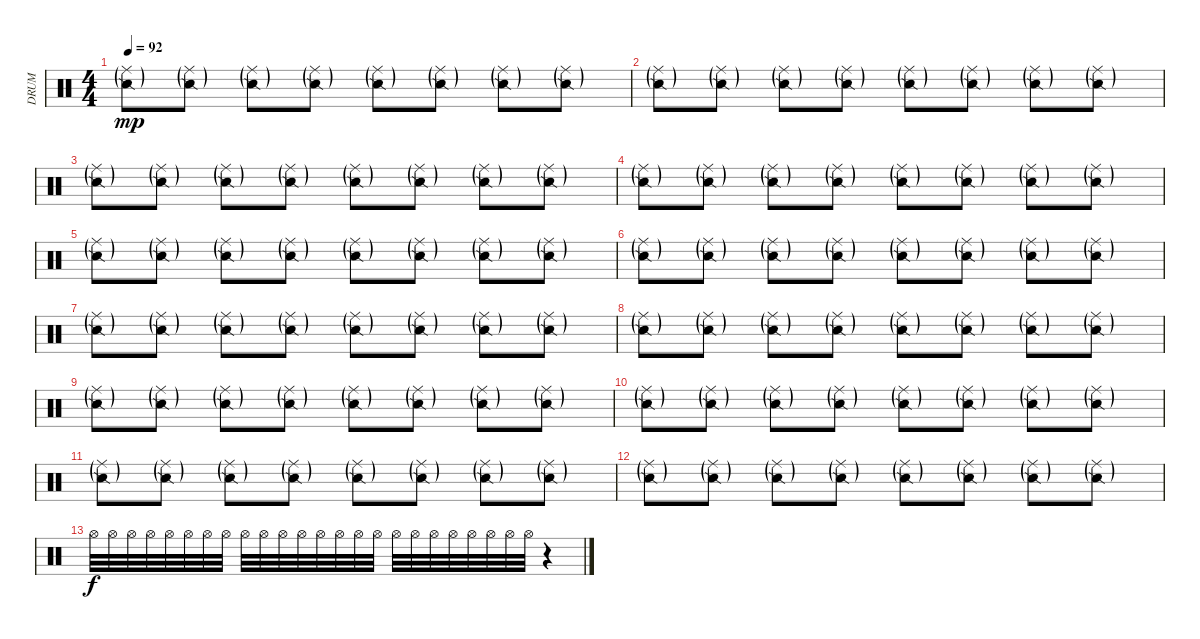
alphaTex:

\track ("DRUM" "DRUM") {instrument percussion}
\staff {score}
\articulation defaults
\ts (4 4)
\tempo 92
\clef neutral
\ks c
("Ride (middle)"{g} "Snare (side stick) 2"{g}).8{dy mp volume 10} ("Ride (middle)"{g} "Snare (side stick) 2"{g}).8 ("Ride (middle)"{g} "Snare (side stick) 2"{g}).8 ("Ride (middle)"{g} "Snare (side stick) 2"{g}).8 ("Ride (middle)"{g} "Snare (side stick) 2"{g}).8 ("Ride (middle)"{g} "Snare (side stick) 2"{g}).8 ("Ride (middle)"{g} "Snare (side stick) 2"{g}).8 ("Ride (middle)"{g} "Snare (side stick) 2"{g}).8 |
("Ride (middle)"{g} "Snare (side stick) 2"{g}).8{volume 10} ("Ride (middle)"{g} "Snare (side stick) 2"{g}).8 ("Ride (middle)"{g} "Snare (side stick) 2"{g}).8 ("Ride (middle)"{g} "Snare (side stick) 2"{g}).8 ("Ride (middle)"{g} "Snare (side stick) 2"{g}).8 ("Ride (middle)"{g} "Snare (side stick) 2"{g}).8 ("Ride (middle)"{g} "Snare (side stick) 2"{g}).8 ("Ride (middle)"{g} "Snare (side stick) 2"{g}).8 |
("Ride (middle)"{g} "Snare (side stick) 2"{g}).8{volume 10} ("Ride (middle)"{g} "Snare (side stick) 2"{g}).8 ("Ride (middle)"{g} "Snare (side stick) 2"{g}).8 ("Ride (middle)"{g} "Snare (side stick) 2"{g}).8 ("Ride (middle)"{g} "Snare (side stick) 2"{g}).8 ("Ride (middle)"{g} "Snare (side stick) 2"{g}).8 ("Ride (middle)"{g} "Snare (side stick) 2"{g}).8 ("Ride (middle)"{g} "Snare (side stick) 2"{g}).8 |
("Ride (middle)"{g} "Snare (side stick) 2"{g}).8{volume 10} ("Ride (middle)"{g} "Snare (side stick) 2"{g}).8 ("Ride (middle)"{g} "Snare (side stick) 2"{g}).8 ("Ride (middle)"{g} "Snare (side stick) 2"{g}).8 ("Ride (middle)"{g} "Snare (side stick) 2"{g}).8 ("Ride (middle)"{g} "Snare (side stick) 2"{g}).8 ("Ride (middle)"{g} "Snare (side stick) 2"{g}).8 ("Ride (middle)"{g} "Snare (side stick) 2"{g}).8 |
("Ride (middle)"{g} "Snare (side stick) 2"{g}).8{volume 10} ("Ride (middle)"{g} "Snare (side stick) 2"{g}).8 ("Ride (middle)"{g} "Snare (side stick) 2"{g}).8 ("Ride (middle)"{g} "Snare (side stick) 2"{g}).8 ("Ride (middle)"{g} "Snare (side stick) 2"{g}).8 ("Ride (middle)"{g} "Snare (side stick) 2"{g}).8 ("Ride (middle)"{g} "Snare (side stick) 2"{g}).8 ("Ride (middle)"{g} "Snare (side stick) 2"{g}).8 |
("Ride (middle)"{g} "Snare (side stick) 2"{g}).8{volume 10} ("Ride (middle)"{g} "Snare (side stick) 2"{g}).8 ("Ride (middle)"{g} "Snare (side stick) 2"{g}).8 ("Ride (middle)"{g} "Snare (side stick) 2"{g}).8 ("Ride (middle)"{g} "Snare (side stick) 2"{g}).8 ("Ride (middle)"{g} "Snare (side stick) 2"{g}).8 ("Ride (middle)"{g} "Snare (side stick) 2"{g}).8 ("Ride (middle)"{g} "Snare (side stick) 2"{g}).8 |
("Ride (middle)"{g} "Snare (side stick) 2"{g}).8{volume 10} ("Ride (middle)"{g} "Snare (side stick) 2"{g}).8 ("Ride (middle)"{g} "Snare (side stick) 2"{g}).8 ("Ride (middle)"{g} "Snare (side stick) 2"{g}).8 ("Ride (middle)"{g} "Snare (side stick) 2"{g}).8 ("Ride (middle)"{g} "Snare (side stick) 2"{g}).8 ("Ride (middle)"{g} "Snare (side stick) 2"{g}).8 ("Ride (middle)"{g} "Snare (side stick) 2"{g}).8 |
("Ride (middle)"{g} "Snare (side stick) 2"{g}).8{volume 10} ("Ride (middle)"{g} "Snare (side stick) 2"{g}).8 ("Ride (middle)"{g} "Snare (side stick) 2"{g}).8 ("Ride (middle)"{g} "Snare (side stick) 2"{g}).8 ("Ride (middle)"{g} "Snare (side stick) 2"{g}).8 ("Ride (middle)"{g} "Snare (side stick) 2"{g}).8 ("Ride (middle)"{g} "Snare (side stick) 2"{g}).8 ("Ride (middle)"{g} "Snare (side stick) 2"{g}).8 |
("Ride (middle)"{g} "Snare (side stick) 2"{g}).8{volume 10} ("Ride (middle)"{g} "Snare (side stick) 2"{g}).8 ("Ride (middle)"{g} "Snare (side stick) 2"{g}).8 ("Ride (middle)"{g} "Snare (side stick) 2"{g}).8 ("Ride (middle)"{g} "Snare (side stick) 2"{g}).8 ("Ride (middle)"{g} "Snare (side stick) 2"{g}).8 ("Ride (middle)"{g} "Snare (side stick) 2"{g}).8 ("Ride (middle)"{g} "Snare (side stick) 2"{g}).8 |
("Ride (middle)"{g} "Snare (side stick) 2"{g}).8{volume 10} ("Ride (middle)"{g} "Snare (side stick) 2"{g}).8 ("Ride (middle)"{g} "Snare (side stick) 2"{g}).8 ("Ride (middle)"{g} "Snare (side stick) 2"{g}).8 ("Ride (middle)"{g} "Snare (side stick) 2"{g}).8 ("Ride (middle)"{g} "Snare (side stick) 2"{g}).8 ("Ride (middle)"{g} "Snare (side stick) 2"{g}).8 ("Ride (middle)"{g} "Snare (side stick) 2"{g}).8 |
("Ride (middle)"{g} "Snare (side stick) 2"{g}).8{volume 10} ("Ride (middle)"{g} "Snare (side stick) 2"{g}).8 ("Ride (middle)"{g} "Snare (side stick) 2"{g}).8 ("Ride (middle)"{g} "Snare (side stick) 2"{g}).8 ("Ride (middle)"{g} "Snare (side stick) 2"{g}).8 ("Ride (middle)"{g} "Snare (side stick) 2"{g}).8 ("Ride (middle)"{g} "Snare (side stick) 2"{g}).8 ("Ride (middle)"{g} "Snare (side stick) 2"{g}).8 |
("Ride (middle)"{g} "Snare (side stick) 2"{g}).8{volume 10} ("Ride (middle)"{g} "Snare (side stick) 2"{g}).8 ("Ride (middle)"{g} "Snare (side stick) 2"{g}).8 ("Ride (middle)"{g} "Snare (side stick) 2"{g}).8 ("Ride (middle)"{g} "Snare (side stick) 2"{g}).8 ("Ride (middle)"{g} "Snare (side stick) 2"{g}).8 ("Ride (middle)"{g} "Snare (side stick) 2"{g}).8 ("Ride (middle)"{g} "Snare (side stick) 2"{g}).8 |
"Hi-Hat (open)".32{dy f} "Hi-Hat (open)".32 "Hi-Hat (open)".32 "Hi-Hat (open)".32 "Hi-Hat (open)".32 "Hi-Hat (open)".32 "Hi-Hat (open)".32 "Hi-Hat (open)".32 "Hi-Hat (open)".32 "Hi-Hat (open)".32 "Hi-Hat (open)".32 "Hi-Hat (open)".32 "Hi-Hat (open)".32 "Hi-Hat (open)".32 "Hi-Hat (open)".32 "Hi-Hat (open)".32 "Hi-Hat (open)".32 "Hi-Hat (open)".32 "Hi-Hat (open)".32 "Hi-Hat (open)".32 "Hi-Hat (open)".32 "Hi-Hat (open)".32 "Hi-Hat (open)".32 "Hi-Hat (open)".32 r.4
